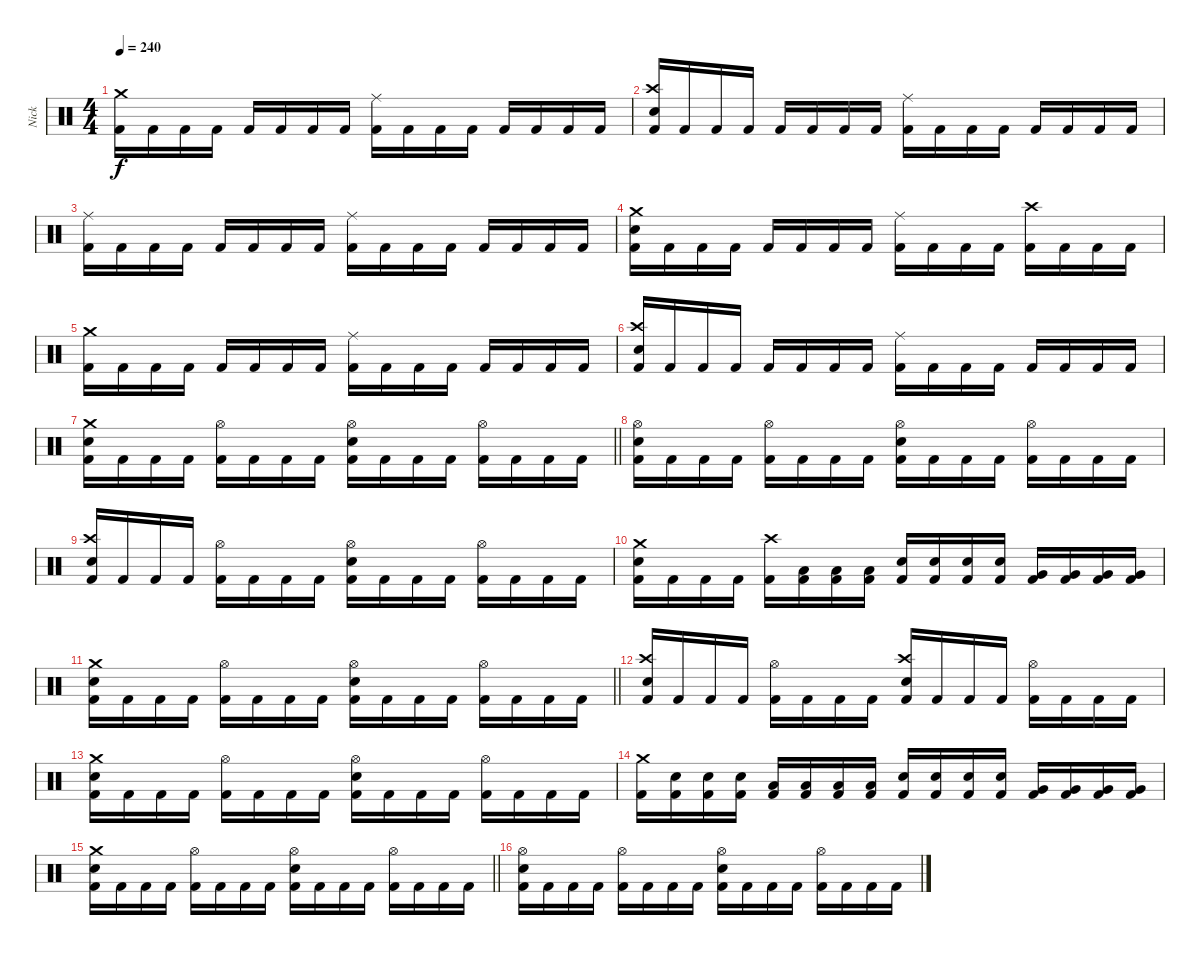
\track ("Nick" "Nick") {instrument percussion}
\staff {score}
\articulation defaults
\ts (4 4)
\tempo 240
\clef neutral
\ks c
("Crash medium (hit)" "Kick (hit) 2").16{dy f} "Kick (hit) 2".16 "Kick (hit) 2".16 "Kick (hit) 2".16 "Kick (hit) 2".16 "Kick (hit) 2".16 "Kick (hit) 2".16 "Kick (hit) 2".16 ("Ride (middle)" "Kick (hit) 2").16 "Kick (hit) 2".16 "Kick (hit) 2".16 "Kick (hit) 2".16 "Kick (hit) 2".16 "Kick (hit) 2".16 "Kick (hit) 2".16 "Kick (hit) 2".16 |
("Crash high (hit)" "Electric Snare (hit)" "Kick (hit) 2").16 "Kick (hit) 2".16 "Kick (hit) 2".16 "Kick (hit) 2".16 "Kick (hit) 2".16 "Kick (hit) 2".16 "Kick (hit) 2".16 "Kick (hit) 2".16 ("Ride (middle)" "Kick (hit) 2").16 "Kick (hit) 2".16 "Kick (hit) 2".16 "Kick (hit) 2".16 "Kick (hit) 2".16 "Kick (hit) 2".16 "Kick (hit) 2".16 "Kick (hit) 2".16 |
("Ride (middle)" "Kick (hit) 2").16 "Kick (hit) 2".16 "Kick (hit) 2".16 "Kick (hit) 2".16 "Kick (hit) 2".16 "Kick (hit) 2".16 "Kick (hit) 2".16 "Kick (hit) 2".16 ("Ride (middle)" "Kick (hit) 2").16 "Kick (hit) 2".16 "Kick (hit) 2".16 "Kick (hit) 2".16 "Kick (hit) 2".16 "Kick (hit) 2".16 "Kick (hit) 2".16 "Kick (hit) 2".16 |
("Crash medium (hit)" "Electric Snare (hit)" "Kick (hit) 2").16 "Kick (hit) 2".16 "Kick (hit) 2".16 "Kick (hit) 2".16 "Kick (hit) 2".16 "Kick (hit) 2".16 "Kick (hit) 2".16 "Kick (hit) 2".16 ("Ride (middle)" "Kick (hit) 2").16 "Kick (hit) 2".16 "Kick (hit) 2".16 "Kick (hit) 2".16 ("Crash high (hit)" "Kick (hit) 2").16 "Kick (hit) 2".16 "Kick (hit) 2".16 "Kick (hit) 2".16 |
("Crash medium (hit)" "Kick (hit) 2").16 "Kick (hit) 2".16 "Kick (hit) 2".16 "Kick (hit) 2".16 "Kick (hit) 2".16 "Kick (hit) 2".16 "Kick (hit) 2".16 "Kick (hit) 2".16 ("Ride (middle)" "Kick (hit) 2").16 "Kick (hit) 2".16 "Kick (hit) 2".16 "Kick (hit) 2".16 "Kick (hit) 2".16 "Kick (hit) 2".16 "Kick (hit) 2".16 "Kick (hit) 2".16 |
("Crash high (hit)" "Electric Snare (hit)" "Kick (hit) 2").16 "Kick (hit) 2".16 "Kick (hit) 2".16 "Kick (hit) 2".16 "Kick (hit) 2".16 "Kick (hit) 2".16 "Kick (hit) 2".16 "Kick (hit) 2".16 ("Ride (middle)" "Kick (hit) 2").16 "Kick (hit) 2".16 "Kick (hit) 2".16 "Kick (hit) 2".16 "Kick (hit) 2".16 "Kick (hit) 2".16 "Kick (hit) 2".16 "Kick (hit) 2".16 |
\barLineRight lightlight
("Crash medium (hit)" "Electric Snare (hit)" "Kick (hit) 2").16 "Kick (hit) 2".16 "Kick (hit) 2".16 "Kick (hit) 2".16 ("Hi-Hat (open)" "Kick (hit) 2").16 "Kick (hit) 2".16 "Kick (hit) 2".16 "Kick (hit) 2".16 ("Hi-Hat (open)" "Electric Snare (hit)" "Kick (hit) 2").16 "Kick (hit) 2".16 "Kick (hit) 2".16 "Kick (hit) 2".16 ("Hi-Hat (open)" "Kick (hit) 2").16 "Kick (hit) 2".16 "Kick (hit) 2".16 "Kick (hit) 2".16 |
("Hi-Hat (open)" "Electric Snare (hit)" "Kick (hit) 2").16 "Kick (hit) 2".16 "Kick (hit) 2".16 "Kick (hit) 2".16 ("Hi-Hat (open)" "Kick (hit) 2").16 "Kick (hit) 2".16 "Kick (hit) 2".16 "Kick (hit) 2".16 ("Hi-Hat (open)" "Electric Snare (hit)" "Kick (hit) 2").16 "Kick (hit) 2".16 "Kick (hit) 2".16 "Kick (hit) 2".16 ("Hi-Hat (open)" "Kick (hit) 2").16 "Kick (hit) 2".16 "Kick (hit) 2".16 "Kick (hit) 2".16 |
("Crash high (hit)" "Electric Snare (hit)" "Kick (hit) 2").16 "Kick (hit) 2".16 "Kick (hit) 2".16 "Kick (hit) 2".16 ("Hi-Hat (open)" "Kick (hit) 2").16 "Kick (hit) 2".16 "Kick (hit) 2".16 "Kick (hit) 2".16 ("Hi-Hat (open)" "Electric Snare (hit)" "Kick (hit) 2").16 "Kick (hit) 2".16 "Kick (hit) 2".16 "Kick (hit) 2".16 ("Hi-Hat (open)" "Kick (hit) 2").16 "Kick (hit) 2".16 "Kick (hit) 2".16 "Kick (hit) 2".16 |
("Crash medium (hit)" "Electric Snare (hit)" "Kick (hit) 2").16 "Kick (hit) 2".16 "Kick (hit) 2".16 "Kick (hit) 2".16 ("Crash high (hit)" "Kick (hit) 2").16 ("Low Tom (hit)" "Kick (hit) 2").16 ("Low Tom (hit)" "Kick (hit) 2").16 ("Low Tom (hit)" "Kick (hit) 2").16 ("Electric Snare (hit)" "Kick (hit) 2").16 ("Electric Snare (hit)" "Kick (hit) 2").16 ("Electric Snare (hit)" "Kick (hit) 2").16 ("Electric Snare (hit)" "Kick (hit) 2").16 ("Very Low Tom (hit)" "Kick (hit) 2").16 ("Very Low Tom (hit)" "Kick (hit) 2").16 ("Very Low Tom (hit)" "Kick (hit) 2").16 ("Very Low Tom (hit)" "Kick (hit) 2").16 |
\barLineRight lightlight
("Crash medium (hit)" "Electric Snare (hit)" "Kick (hit) 2").16 "Kick (hit) 2".16 "Kick (hit) 2".16 "Kick (hit) 2".16 ("Hi-Hat (open)" "Kick (hit) 2").16 "Kick (hit) 2".16 "Kick (hit) 2".16 "Kick (hit) 2".16 ("Hi-Hat (open)" "Electric Snare (hit)" "Kick (hit) 2").16 "Kick (hit) 2".16 "Kick (hit) 2".16 "Kick (hit) 2".16 ("Hi-Hat (open)" "Kick (hit) 2").16 "Kick (hit) 2".16 "Kick (hit) 2".16 "Kick (hit) 2".16 |
("Crash high (hit)" "Electric Snare (hit)" "Kick (hit) 2").16 "Kick (hit) 2".16 "Kick (hit) 2".16 "Kick (hit) 2".16 ("Hi-Hat (open)" "Kick (hit) 2").16 "Kick (hit) 2".16 "Kick (hit) 2".16 "Kick (hit) 2".16 ("Crash high (hit)" "Electric Snare (hit)" "Kick (hit) 2").16 "Kick (hit) 2".16 "Kick (hit) 2".16 "Kick (hit) 2".16 ("Hi-Hat (open)" "Kick (hit) 2").16 "Kick (hit) 2".16 "Kick (hit) 2".16 "Kick (hit) 2".16 |
("Crash medium (hit)" "Electric Snare (hit)" "Kick (hit) 2").16 "Kick (hit) 2".16 "Kick (hit) 2".16 "Kick (hit) 2".16 ("Hi-Hat (open)" "Kick (hit) 2").16 "Kick (hit) 2".16 "Kick (hit) 2".16 "Kick (hit) 2".16 ("Hi-Hat (open)" "Electric Snare (hit)" "Kick (hit) 2").16 "Kick (hit) 2".16 "Kick (hit) 2".16 "Kick (hit) 2".16 ("Hi-Hat (open)" "Kick (hit) 2").16 "Kick (hit) 2".16 "Kick (hit) 2".16 "Kick (hit) 2".16 |
("Crash medium (hit)" "Kick (hit) 2").16 ("Electric Snare (hit)" "Kick (hit) 2").16 ("Electric Snare (hit)" "Kick (hit) 2").16 ("Electric Snare (hit)" "Kick (hit) 2").16 ("Low Tom (hit)" "Kick (hit) 2").16 ("Low Tom (hit)" "Kick (hit) 2").16 ("Low Tom (hit)" "Kick (hit) 2").16 ("Low Tom (hit)" "Kick (hit) 2").16 ("Electric Snare (hit)" "Kick (hit) 2").16 ("Electric Snare (hit)" "Kick (hit) 2").16 ("Electric Snare (hit)" "Kick (hit) 2").16 ("Electric Snare (hit)" "Kick (hit) 2").16 ("Very Low Tom (hit)" "Kick (hit) 2").16 ("Very Low Tom (hit)" "Kick (hit) 2").16 ("Very Low Tom (hit)" "Kick (hit) 2").16 ("Very Low Tom (hit)" "Kick (hit) 2").16 |
\barLineRight lightlight
("Crash medium (hit)" "Electric Snare (hit)" "Kick (hit) 2").16 "Kick (hit) 2".16 "Kick (hit) 2".16 "Kick (hit) 2".16 ("Hi-Hat (open)" "Kick (hit) 2").16 "Kick (hit) 2".16 "Kick (hit) 2".16 "Kick (hit) 2".16 ("Hi-Hat (open)" "Electric Snare (hit)" "Kick (hit) 2").16 "Kick (hit) 2".16 "Kick (hit) 2".16 "Kick (hit) 2".16 ("Hi-Hat (open)" "Kick (hit) 2").16 "Kick (hit) 2".16 "Kick (hit) 2".16 "Kick (hit) 2".16 |
("Hi-Hat (open)" "Electric Snare (hit)" "Kick (hit) 2").16 "Kick (hit) 2".16 "Kick (hit) 2".16 "Kick (hit) 2".16 ("Hi-Hat (open)" "Kick (hit) 2").16 "Kick (hit) 2".16 "Kick (hit) 2".16 "Kick (hit) 2".16 ("Hi-Hat (open)" "Electric Snare (hit)" "Kick (hit) 2").16 "Kick (hit) 2".16 "Kick (hit) 2".16 "Kick (hit) 2".16 ("Hi-Hat (open)" "Kick (hit) 2").16 "Kick (hit) 2".16 "Kick (hit) 2".16 "Kick (hit) 2".16
